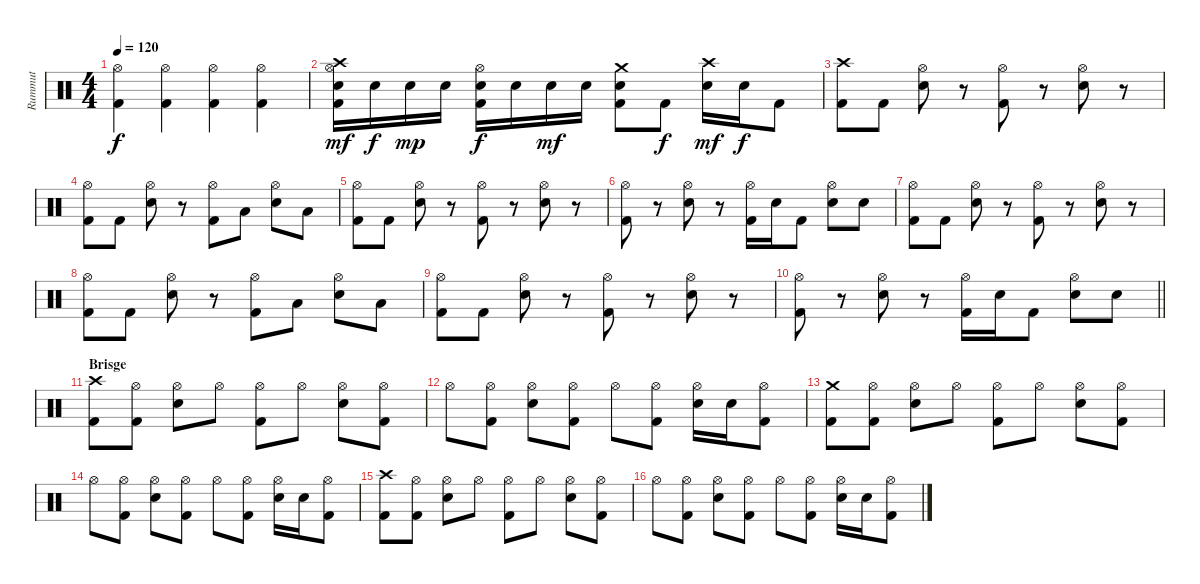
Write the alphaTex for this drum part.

\track ("Rummut" "Rummut") {instrument percussion}
\staff {score}
\articulation defaults
\ts (4 4)
\tempo 120
\clef neutral
\ks c
("Hi-Hat (open)" "Kick (hit) 2").4{dy f} ("Hi-Hat (open)" "Kick (hit) 2").4 ("Hi-Hat (open)" "Kick (hit) 2").4 ("Hi-Hat (open)" "Kick (hit) 2").4 |
("Crash high (hit)" "Snare (hit) 2" "Hi-Hat (open)" "Kick (hit) 2").16{dy mf} "Snare (hit) 2".16{dy f} "Snare (hit) 2".16{dy mp} "Snare (hit) 2".16 ("Snare (hit) 2" "Hi-Hat (open)" "Kick (hit) 2").16{dy f} "Snare (hit) 2".16 "Snare (hit) 2".16{dy mf} "Snare (hit) 2".16 ("Crash medium (hit)" "Snare (hit) 2" "Kick (hit) 2").8 "Kick (hit) 2".8{dy f} ("Crash high (hit)" "Snare (hit) 2").16{dy mf} "Snare (hit) 2".16{dy f} "Kick (hit) 2".8 |
("Crash high (hit)" "Kick (hit) 2").8 "Kick (hit) 2".8 ("Hi-Hat (open)" "Snare (hit) 2").8 r.8 ("Hi-Hat (open)" "Kick (hit) 2").8 r.8 ("Hi-Hat (open)" "Snare (hit) 2").8 r.8 |
("Hi-Hat (open)" "Kick (hit) 2").8 "Kick (hit) 2".8 ("Hi-Hat (open)" "Snare (hit) 2").8 r.8 ("Hi-Hat (open)" "Kick (hit) 2").8 "Low Tom (hit)".8 ("Hi-Hat (open)" "Snare (hit) 2").8 "Low Floor Tom (hit)".8 |
("Hi-Hat (open)" "Kick (hit) 2").8 "Kick (hit) 2".8 ("Hi-Hat (open)" "Snare (hit) 2").8 r.8 ("Hi-Hat (open)" "Kick (hit) 2").8 r.8 ("Hi-Hat (open)" "Snare (hit) 2").8 r.8 |
("Hi-Hat (open)" "Kick (hit) 2").8 r.8 ("Hi-Hat (open)" "Snare (hit) 2").8 r.8 ("Hi-Hat (open)" "Kick (hit) 2").16 "Snare (hit) 2".16 "Kick (hit) 2".8 ("Hi-Hat (open)" "Snare (hit) 2").8 "Snare (hit) 2".8 |
("Hi-Hat (open)" "Kick (hit) 2").8 "Kick (hit) 2".8 ("Hi-Hat (open)" "Snare (hit) 2").8 r.8 ("Hi-Hat (open)" "Kick (hit) 2").8 r.8 ("Hi-Hat (open)" "Snare (hit) 2").8 r.8 |
("Hi-Hat (open)" "Kick (hit) 2").8 "Kick (hit) 2".8 ("Hi-Hat (open)" "Snare (hit) 2").8 r.8 ("Hi-Hat (open)" "Kick (hit) 2").8 "Low Tom (hit)".8 ("Hi-Hat (open)" "Snare (hit) 2").8 "Low Floor Tom (hit)".8 |
("Hi-Hat (open)" "Kick (hit) 2").8 "Kick (hit) 2".8 ("Hi-Hat (open)" "Snare (hit) 2").8 r.8 ("Hi-Hat (open)" "Kick (hit) 2").8 r.8 ("Hi-Hat (open)" "Snare (hit) 2").8 r.8 |
\barLineRight lightlight
("Hi-Hat (open)" "Kick (hit) 2").8 r.8 ("Hi-Hat (open)" "Snare (hit) 2").8 r.8 ("Hi-Hat (open)" "Kick (hit) 2").16 "Snare (hit) 2".16 "Kick (hit) 2".8 ("Hi-Hat (open)" "Snare (hit) 2").8 "Snare (hit) 2".8 |
\section ("" "Brisge")
("Crash high (hit)" "Kick (hit) 2").8 ("Hi-Hat (open)" "Kick (hit) 2").8 ("Hi-Hat (open)" "Snare (hit) 2").8 "Hi-Hat (open)".8 ("Hi-Hat (open)" "Kick (hit) 2").8 "Hi-Hat (open)".8 ("Hi-Hat (open)" "Snare (hit) 2").8 ("Hi-Hat (open)" "Kick (hit) 2").8 |
"Hi-Hat (open)".8 ("Hi-Hat (open)" "Kick (hit) 2").8 ("Hi-Hat (open)" "Snare (hit) 2").8 ("Hi-Hat (open)" "Kick (hit) 2").8 "Hi-Hat (open)".8 ("Hi-Hat (open)" "Kick (hit) 2").8 ("Hi-Hat (open)" "Snare (hit) 2").16 "Snare (hit) 2".16 ("Hi-Hat (open)" "Kick (hit) 2").8 |
("Crash medium (hit)" "Kick (hit) 2").8 ("Hi-Hat (open)" "Kick (hit) 2").8 ("Hi-Hat (open)" "Snare (hit) 2").8 "Hi-Hat (open)".8 ("Hi-Hat (open)" "Kick (hit) 2").8 "Hi-Hat (open)".8 ("Hi-Hat (open)" "Snare (hit) 2").8 ("Hi-Hat (open)" "Kick (hit) 2").8 |
"Hi-Hat (open)".8 ("Hi-Hat (open)" "Kick (hit) 2").8 ("Hi-Hat (open)" "Snare (hit) 2").8 ("Hi-Hat (open)" "Kick (hit) 2").8 "Hi-Hat (open)".8 ("Hi-Hat (open)" "Kick (hit) 2").8 ("Hi-Hat (open)" "Snare (hit) 2").16 "Snare (hit) 2".16 ("Hi-Hat (open)" "Kick (hit) 2").8 |
("Crash high (hit)" "Kick (hit) 2").8 ("Hi-Hat (open)" "Kick (hit) 2").8 ("Hi-Hat (open)" "Snare (hit) 2").8 "Hi-Hat (open)".8 ("Hi-Hat (open)" "Kick (hit) 2").8 "Hi-Hat (open)".8 ("Hi-Hat (open)" "Snare (hit) 2").8 ("Hi-Hat (open)" "Kick (hit) 2").8 |
"Hi-Hat (open)".8 ("Hi-Hat (open)" "Kick (hit) 2").8 ("Hi-Hat (open)" "Snare (hit) 2").8 ("Hi-Hat (open)" "Kick (hit) 2").8 "Hi-Hat (open)".8 ("Hi-Hat (open)" "Kick (hit) 2").8 ("Hi-Hat (open)" "Snare (hit) 2").16 "Snare (hit) 2".16 ("Hi-Hat (open)" "Kick (hit) 2").8
